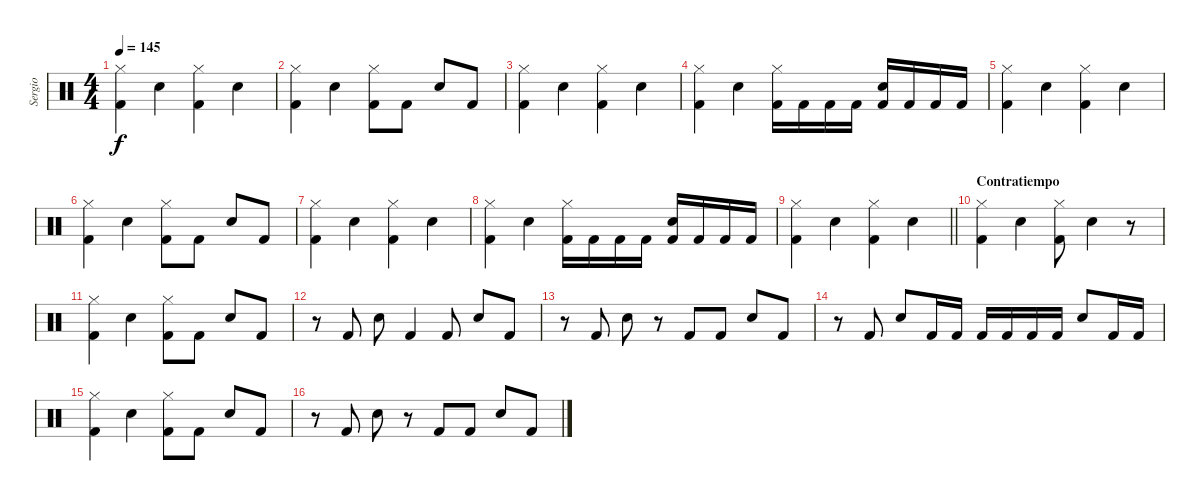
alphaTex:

\track ("Sergio" "Sergio") {instrument percussion}
\staff {score}
\articulation defaults
\ts (4 4)
\tempo 145
\clef neutral
\ks c
("Hi-Hat (closed)" "Kick (hit) 2").4{dy f} "Electric Snare (hit)".4 ("Hi-Hat (closed)" "Kick (hit) 2").4 "Electric Snare (hit)".4 |
("Hi-Hat (closed)" "Kick (hit) 2").4 "Electric Snare (hit)".4 ("Hi-Hat (closed)" "Kick (hit) 2").8 "Kick (hit) 2".8 "Electric Snare (hit)".8 "Kick (hit) 2".8 |
("Hi-Hat (closed)" "Kick (hit) 2").4 "Electric Snare (hit)".4 ("Hi-Hat (closed)" "Kick (hit) 2").4 "Electric Snare (hit)".4 |
("Hi-Hat (closed)" "Kick (hit) 2").4 "Electric Snare (hit)".4 ("Hi-Hat (closed)" "Kick (hit) 2").16 "Kick (hit) 2".16 "Kick (hit) 2".16 "Kick (hit) 2".16 ("Electric Snare (hit)" "Kick (hit) 2").16 "Kick (hit) 2".16 "Kick (hit) 2".16 "Kick (hit) 2".16 |
("Hi-Hat (closed)" "Kick (hit) 2").4 "Electric Snare (hit)".4 ("Hi-Hat (closed)" "Kick (hit) 2").4 "Electric Snare (hit)".4 |
("Hi-Hat (closed)" "Kick (hit) 2").4 "Electric Snare (hit)".4 ("Hi-Hat (closed)" "Kick (hit) 2").8 "Kick (hit) 2".8 "Electric Snare (hit)".8 "Kick (hit) 2".8 |
("Hi-Hat (closed)" "Kick (hit) 2").4 "Electric Snare (hit)".4 ("Hi-Hat (closed)" "Kick (hit) 2").4 "Electric Snare (hit)".4 |
("Hi-Hat (closed)" "Kick (hit) 2").4 "Electric Snare (hit)".4 ("Hi-Hat (closed)" "Kick (hit) 2").16 "Kick (hit) 2".16 "Kick (hit) 2".16 "Kick (hit) 2".16 ("Electric Snare (hit)" "Kick (hit) 2").16 "Kick (hit) 2".16 "Kick (hit) 2".16 "Kick (hit) 2".16 |
\barLineRight lightlight
("Hi-Hat (closed)" "Kick (hit) 2").4 "Electric Snare (hit)".4 ("Hi-Hat (closed)" "Kick (hit) 2").4 "Electric Snare (hit)".4 |
\section ("" "Contratiempo")
("Hi-Hat (closed)" "Kick (hit) 2").4 "Electric Snare (hit)".4 ("Hi-Hat (closed)" "Kick (hit) 2").8 "Electric Snare (hit)".4 r.8 |
("Hi-Hat (closed)" "Kick (hit) 2").4 "Electric Snare (hit)".4 ("Hi-Hat (closed)" "Kick (hit) 2").8 "Kick (hit) 2".8 "Electric Snare (hit)".8 "Kick (hit) 2".8 |
r.8 "Kick (hit) 2".8 "Electric Snare (hit)".8 "Kick (hit) 2".4 "Kick (hit) 2".8 "Electric Snare (hit)".8 "Kick (hit) 2".8 |
r.8 "Kick (hit) 2".8 "Electric Snare (hit)".8 r.8 "Kick (hit) 2".8 "Kick (hit) 2".8 "Electric Snare (hit)".8 "Kick (hit) 2".8 |
r.8 "Kick (hit) 2".8 "Electric Snare (hit)".8 "Kick (hit) 2".16 "Kick (hit) 2".16 "Kick (hit) 2".16 "Kick (hit) 2".16 "Kick (hit) 2".16 "Kick (hit) 2".16 "Electric Snare (hit)".8 "Kick (hit) 2".16 "Kick (hit) 2".16 |
("Hi-Hat (closed)" "Kick (hit) 2").4 "Electric Snare (hit)".4 ("Hi-Hat (closed)" "Kick (hit) 2").8 "Kick (hit) 2".8 "Electric Snare (hit)".8 "Kick (hit) 2".8 |
r.8 "Kick (hit) 2".8 "Electric Snare (hit)".8 r.8 "Kick (hit) 2".8 "Kick (hit) 2".8 "Electric Snare (hit)".8 "Kick (hit) 2".8
